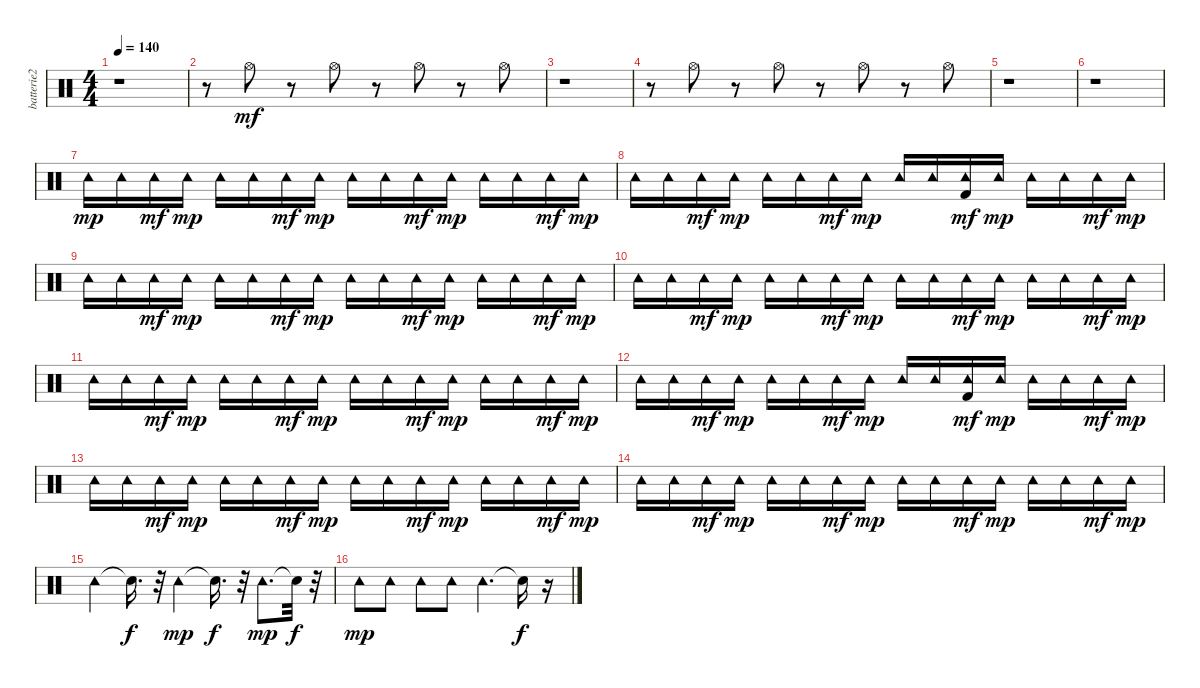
\track ("batterie2" "batterie2") {instrument percussion}
\staff {score}
\articulation defaults
\ts (4 4)
\tempo 140
\clef neutral
\ks c
r.1{dy mf} |
r.8 "Hi-Hat (open)".8 r.8 "Hi-Hat (open)".8 r.8 "Hi-Hat (open)".8 r.8 "Hi-Hat (open)".8 |
r.1 |
r.8 "Hi-Hat (open)".8 r.8 "Hi-Hat (open)".8 r.8 "Hi-Hat (open)".8 r.8 "Hi-Hat (open)".8 |
r.1 |
r.1 |
"Tambourine (hit)".16{dy mp} "Tambourine (hit)".16 "Tambourine (hit)".16{dy mf} "Tambourine (hit)".16{dy mp} "Tambourine (hit)".16 "Tambourine (hit)".16 "Tambourine (hit)".16{dy mf} "Tambourine (hit)".16{dy mp} "Tambourine (hit)".16 "Tambourine (hit)".16 "Tambourine (hit)".16{dy mf} "Tambourine (hit)".16{dy mp} "Tambourine (hit)".16 "Tambourine (hit)".16 "Tambourine (hit)".16{dy mf} "Tambourine (hit)".16{dy mp} |
"Tambourine (hit)".16 "Tambourine (hit)".16 "Tambourine (hit)".16{dy mf} "Tambourine (hit)".16{dy mp} "Tambourine (hit)".16 "Tambourine (hit)".16 "Tambourine (hit)".16{dy mf} "Tambourine (hit)".16{dy mp} "Tambourine (hit)".16 "Tambourine (hit)".16 ("Kick (hit) 2" "Tambourine (hit)").16{dy mf} "Tambourine (hit)".16{dy mp} "Tambourine (hit)".16 "Tambourine (hit)".16 "Tambourine (hit)".16{dy mf} "Tambourine (hit)".16{dy mp} |
"Tambourine (hit)".16 "Tambourine (hit)".16 "Tambourine (hit)".16{dy mf} "Tambourine (hit)".16{dy mp} "Tambourine (hit)".16 "Tambourine (hit)".16 "Tambourine (hit)".16{dy mf} "Tambourine (hit)".16{dy mp} "Tambourine (hit)".16 "Tambourine (hit)".16 "Tambourine (hit)".16{dy mf} "Tambourine (hit)".16{dy mp} "Tambourine (hit)".16 "Tambourine (hit)".16 "Tambourine (hit)".16{dy mf} "Tambourine (hit)".16{dy mp} |
"Tambourine (hit)".16 "Tambourine (hit)".16 "Tambourine (hit)".16{dy mf} "Tambourine (hit)".16{dy mp} "Tambourine (hit)".16 "Tambourine (hit)".16 "Tambourine (hit)".16{dy mf} "Tambourine (hit)".16{dy mp} "Tambourine (hit)".16 "Tambourine (hit)".16 "Tambourine (hit)".16{dy mf} "Tambourine (hit)".16{dy mp} "Tambourine (hit)".16 "Tambourine (hit)".16 "Tambourine (hit)".16{dy mf} "Tambourine (hit)".16{dy mp} |
"Tambourine (hit)".16 "Tambourine (hit)".16 "Tambourine (hit)".16{dy mf} "Tambourine (hit)".16{dy mp} "Tambourine (hit)".16 "Tambourine (hit)".16 "Tambourine (hit)".16{dy mf} "Tambourine (hit)".16{dy mp} "Tambourine (hit)".16 "Tambourine (hit)".16 "Tambourine (hit)".16{dy mf} "Tambourine (hit)".16{dy mp} "Tambourine (hit)".16 "Tambourine (hit)".16 "Tambourine (hit)".16{dy mf} "Tambourine (hit)".16{dy mp} |
"Tambourine (hit)".16 "Tambourine (hit)".16 "Tambourine (hit)".16{dy mf} "Tambourine (hit)".16{dy mp} "Tambourine (hit)".16 "Tambourine (hit)".16 "Tambourine (hit)".16{dy mf} "Tambourine (hit)".16{dy mp} "Tambourine (hit)".16 "Tambourine (hit)".16 ("Kick (hit) 2" "Tambourine (hit)").16{dy mf} "Tambourine (hit)".16{dy mp} "Tambourine (hit)".16 "Tambourine (hit)".16 "Tambourine (hit)".16{dy mf} "Tambourine (hit)".16{dy mp} |
"Tambourine (hit)".16 "Tambourine (hit)".16 "Tambourine (hit)".16{dy mf} "Tambourine (hit)".16{dy mp} "Tambourine (hit)".16 "Tambourine (hit)".16 "Tambourine (hit)".16{dy mf} "Tambourine (hit)".16{dy mp} "Tambourine (hit)".16 "Tambourine (hit)".16 "Tambourine (hit)".16{dy mf} "Tambourine (hit)".16{dy mp} "Tambourine (hit)".16 "Tambourine (hit)".16 "Tambourine (hit)".16{dy mf} "Tambourine (hit)".16{dy mp} |
"Tambourine (hit)".16 "Tambourine (hit)".16 "Tambourine (hit)".16{dy mf} "Tambourine (hit)".16{dy mp} "Tambourine (hit)".16 "Tambourine (hit)".16 "Tambourine (hit)".16{dy mf} "Tambourine (hit)".16{dy mp} "Tambourine (hit)".16 "Tambourine (hit)".16 "Tambourine (hit)".16{dy mf} "Tambourine (hit)".16{dy mp} "Tambourine (hit)".16 "Tambourine (hit)".16 "Tambourine (hit)".16{dy mf} "Tambourine (hit)".16{dy mp} |
"Tambourine (hit)".4 "Snare (hit)"{t}.16{d dy f} r.32 "Tambourine (hit)".4{dy mp} "Snare (hit)"{t}.16{d dy f} r.32 "Tambourine (hit)".8{d dy mp} "Snare (hit)"{t}.32{dy f} r.32 |
"Tambourine (hit)".8{dy mp} "Tambourine (hit)".8 "Tambourine (hit)".8 "Tambourine (hit)".8 "Tambourine (hit)".4{d} "Snare (hit)"{t}.16{dy f} r.16
